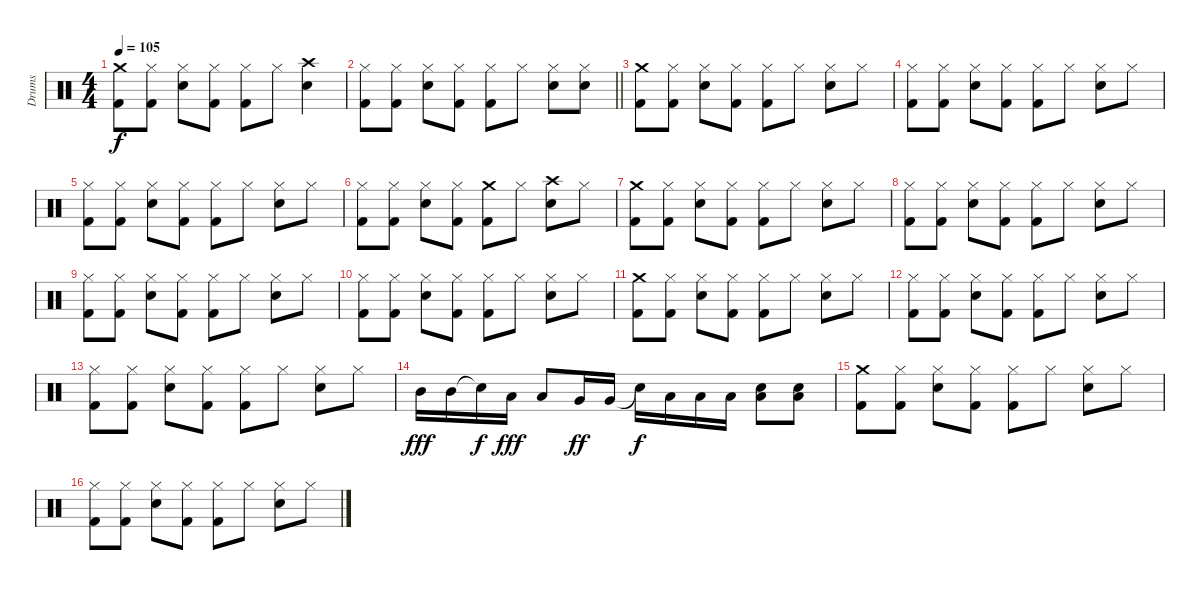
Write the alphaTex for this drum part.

\track ("Drums" "Drums") {instrument percussion}
\staff {score}
\articulation defaults
\ts (4 4)
\tempo 105
\clef neutral
\ks c
("Kick (hit) 2" "Crash medium (hit)").8{dy f} ("Kick (hit) 2" "Hi-Hat (closed)").8 ("Snare (hit) 2" "Hi-Hat (closed)").8 ("Kick (hit) 2" "Hi-Hat (closed)").8 ("Kick (hit) 2" "Hi-Hat (closed)").8 "Hi-Hat (closed)".8 ("Snare (hit) 2" "Crash high (hit)").4 |
\barLineRight lightlight
("Kick (hit) 2" "Hi-Hat (closed)").8 ("Kick (hit) 2" "Hi-Hat (closed)").8 ("Snare (hit) 2" "Hi-Hat (closed)").8 ("Kick (hit) 2" "Hi-Hat (closed)").8 ("Kick (hit) 2" "Hi-Hat (closed)").8 "Hi-Hat (closed)".8 ("Snare (hit) 2" "Hi-Hat (closed)").8 ("Snare (hit) 2" "Hi-Hat (closed)").8 |
("Kick (hit) 2" "Crash medium (hit)").8 ("Kick (hit) 2" "Hi-Hat (closed)").8 ("Snare (hit) 2" "Hi-Hat (closed)").8 ("Kick (hit) 2" "Hi-Hat (closed)").8 ("Kick (hit) 2" "Hi-Hat (closed)").8 "Hi-Hat (closed)".8 ("Snare (hit) 2" "Hi-Hat (closed)").8 "Hi-Hat (closed)".8 |
("Kick (hit) 2" "Hi-Hat (closed)").8 ("Kick (hit) 2" "Hi-Hat (closed)").8 ("Snare (hit) 2" "Hi-Hat (closed)").8 ("Kick (hit) 2" "Hi-Hat (closed)").8 ("Kick (hit) 2" "Hi-Hat (closed)").8 "Hi-Hat (closed)".8 ("Snare (hit) 2" "Hi-Hat (closed)").8 "Hi-Hat (closed)".8 |
("Kick (hit) 2" "Hi-Hat (closed)").8 ("Kick (hit) 2" "Hi-Hat (closed)").8 ("Snare (hit) 2" "Hi-Hat (closed)").8 ("Kick (hit) 2" "Hi-Hat (closed)").8 ("Kick (hit) 2" "Hi-Hat (closed)").8 "Hi-Hat (closed)".8 ("Snare (hit) 2" "Hi-Hat (closed)").8 "Hi-Hat (closed)".8 |
("Kick (hit) 2" "Hi-Hat (closed)").8 ("Kick (hit) 2" "Hi-Hat (closed)").8 ("Snare (hit) 2" "Hi-Hat (closed)").8 ("Kick (hit) 2" "Hi-Hat (closed)").8 ("Kick (hit) 2" "Crash medium (hit)").8 "Hi-Hat (closed)".8 ("Snare (hit) 2" "Crash high (hit)").8 "Hi-Hat (closed)".8 |
("Kick (hit) 2" "Crash medium (hit)").8 ("Kick (hit) 2" "Hi-Hat (closed)").8 ("Snare (hit) 2" "Hi-Hat (closed)").8 ("Kick (hit) 2" "Hi-Hat (closed)").8 ("Kick (hit) 2" "Hi-Hat (closed)").8 "Hi-Hat (closed)".8 ("Snare (hit) 2" "Hi-Hat (closed)").8 "Hi-Hat (closed)".8 |
("Kick (hit) 2" "Hi-Hat (closed)").8 ("Kick (hit) 2" "Hi-Hat (closed)").8 ("Snare (hit) 2" "Hi-Hat (closed)").8 ("Kick (hit) 2" "Hi-Hat (closed)").8 ("Kick (hit) 2" "Hi-Hat (closed)").8 "Hi-Hat (closed)".8 ("Snare (hit) 2" "Hi-Hat (closed)").8 "Hi-Hat (closed)".8 |
("Kick (hit) 2" "Hi-Hat (closed)").8 ("Kick (hit) 2" "Hi-Hat (closed)").8 ("Snare (hit) 2" "Hi-Hat (closed)").8 ("Kick (hit) 2" "Hi-Hat (closed)").8 ("Kick (hit) 2" "Hi-Hat (closed)").8 "Hi-Hat (closed)".8 ("Snare (hit) 2" "Hi-Hat (closed)").8 "Hi-Hat (closed)".8 |
("Kick (hit) 2" "Hi-Hat (closed)").8 ("Kick (hit) 2" "Hi-Hat (closed)").8 ("Snare (hit) 2" "Hi-Hat (closed)").8 ("Kick (hit) 2" "Hi-Hat (closed)").8 ("Kick (hit) 2" "Hi-Hat (closed)").8 "Hi-Hat (closed)".8 ("Snare (hit) 2" "Hi-Hat (closed)").8 "Hi-Hat (closed)".8 |
("Kick (hit) 2" "Crash medium (hit)").8 ("Kick (hit) 2" "Hi-Hat (closed)").8 ("Snare (hit) 2" "Hi-Hat (closed)").8 ("Kick (hit) 2" "Hi-Hat (closed)").8 ("Kick (hit) 2" "Hi-Hat (closed)").8 "Hi-Hat (closed)".8 ("Snare (hit) 2" "Hi-Hat (closed)").8 "Hi-Hat (closed)".8 |
("Kick (hit) 2" "Hi-Hat (closed)").8 ("Kick (hit) 2" "Hi-Hat (closed)").8 ("Snare (hit) 2" "Hi-Hat (closed)").8 ("Kick (hit) 2" "Hi-Hat (closed)").8 ("Kick (hit) 2" "Hi-Hat (closed)").8 "Hi-Hat (closed)".8 ("Snare (hit) 2" "Hi-Hat (closed)").8 "Hi-Hat (closed)".8 |
("Kick (hit) 2" "Hi-Hat (closed)").8 ("Kick (hit) 2" "Hi-Hat (closed)").8 ("Snare (hit) 2" "Hi-Hat (closed)").8 ("Kick (hit) 2" "Hi-Hat (closed)").8 ("Kick (hit) 2" "Hi-Hat (closed)").8 "Hi-Hat (closed)".8 ("Snare (hit) 2" "Hi-Hat (closed)").8 "Hi-Hat (closed)".8 |
"Mid Tom (hit)".16{dy fff} "Mid Tom (hit)".16 "Snare (hit)"{t}.16{dy f} "Low Tom (hit)".16{dy fff} "Low Tom (hit)".8 "Very Low Tom (hit)".16{dy ff} "Very Low Tom (hit)".16 "Snare (hit)"{t}.16{dy f} "Low Floor Tom (hit)".16 "Low Floor Tom (hit)".16 "Low Floor Tom (hit)".16 ("Snare (hit) 2" "Low Floor Tom (hit)").8 ("Snare (hit) 2" "Low Floor Tom (hit)").8 |
("Kick (hit) 2" "Crash medium (hit)").8 ("Kick (hit) 2" "Hi-Hat (closed)").8 ("Snare (hit) 2" "Hi-Hat (closed)").8 ("Kick (hit) 2" "Hi-Hat (closed)").8 ("Kick (hit) 2" "Hi-Hat (closed)").8 "Hi-Hat (closed)".8 ("Snare (hit) 2" "Hi-Hat (closed)").8 "Hi-Hat (closed)".8 |
("Kick (hit) 2" "Hi-Hat (closed)").8 ("Kick (hit) 2" "Hi-Hat (closed)").8 ("Snare (hit) 2" "Hi-Hat (closed)").8 ("Kick (hit) 2" "Hi-Hat (closed)").8 ("Kick (hit) 2" "Hi-Hat (closed)").8 "Hi-Hat (closed)".8 ("Snare (hit) 2" "Hi-Hat (closed)").8 "Hi-Hat (closed)".8
